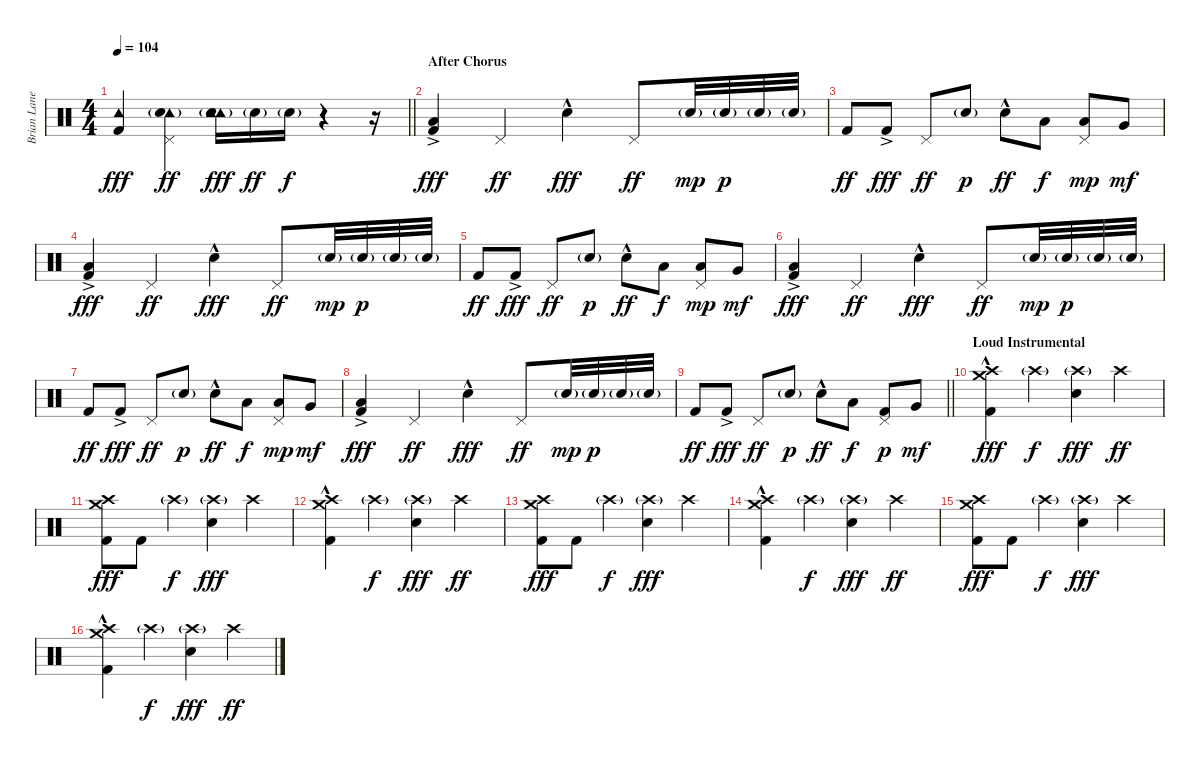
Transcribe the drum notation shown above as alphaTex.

\track ("Brian Lane - Drums" "Brian Lane") {instrument percussion}
\staff {score}
\articulation defaults
\ts (4 4)
\tempo 104
\clef neutral
\barLineRight lightlight
\ks c
("Tambourine (hit)" "Kick (hit) 2").4{dy fff} ("Tambourine (hit)"{g} "Pedal Hi-Hat (hit)" "Snare (hit) 2").4{dy ff} ("Tambourine (hit)"{g} "Tambourine (hit)" "Snare (hit) 2").16{dy fff} "Snare (hit) 2"{g}.16{dy ff} "Snare (hit) 2"{g}.16{dy f} r.4 r.16 |
\section ("" "After Chorus")
("Low Floor Tom (hit)" "Kick (hit) 2"{ac}).4{dy fff} "Pedal Hi-Hat (hit)".4{dy ff} "Snare (hit) 2"{hac}.4{dy fff} "Pedal Hi-Hat (hit)".8{dy ff} "Snare (hit) 2"{g}.32{dy mp} "Snare (hit) 2"{g}.32{dy p} "Snare (hit) 2"{g}.32 "Snare (hit) 2"{g}.32 |
"Kick (hit) 2".8{dy ff} "Kick (hit) 2"{ac}.8{dy fff} "Pedal Hi-Hat (hit)".8{dy ff} "Snare (hit) 2"{g}.8{dy p} "Snare (hit) 2"{hac}.8{dy ff} "Low Tom (hit)".8{dy f} ("Pedal Hi-Hat (hit)" "Low Tom (hit)").8{dy mp} "Very Low Tom (hit)".8{dy mf} |
("Low Floor Tom (hit)" "Kick (hit) 2"{ac}).4{dy fff} "Pedal Hi-Hat (hit)".4{dy ff} "Snare (hit) 2"{hac}.4{dy fff} "Pedal Hi-Hat (hit)".8{dy ff} "Snare (hit) 2"{g}.32{dy mp} "Snare (hit) 2"{g}.32{dy p} "Snare (hit) 2"{g}.32 "Snare (hit) 2"{g}.32 |
"Kick (hit) 2".8{dy ff} "Kick (hit) 2"{ac}.8{dy fff} "Pedal Hi-Hat (hit)".8{dy ff} "Snare (hit) 2"{g}.8{dy p} "Snare (hit) 2"{hac}.8{dy ff} "Low Tom (hit)".8{dy f} ("Pedal Hi-Hat (hit)" "Low Tom (hit)").8{dy mp} "Very Low Tom (hit)".8{dy mf} |
("Low Floor Tom (hit)" "Kick (hit) 2"{ac}).4{dy fff} "Pedal Hi-Hat (hit)".4{dy ff} "Snare (hit) 2"{hac}.4{dy fff} "Pedal Hi-Hat (hit)".8{dy ff} "Snare (hit) 2"{g}.32{dy mp} "Snare (hit) 2"{g}.32{dy p} "Snare (hit) 2"{g}.32 "Snare (hit) 2"{g}.32 |
"Kick (hit) 2".8{dy ff} "Kick (hit) 2"{ac}.8{dy fff} "Pedal Hi-Hat (hit)".8{dy ff} "Snare (hit) 2"{g}.8{dy p} "Snare (hit) 2"{hac}.8{dy ff} "Low Tom (hit)".8{dy f} ("Pedal Hi-Hat (hit)" "Low Tom (hit)").8{dy mp} "Very Low Tom (hit)".8{dy mf} |
("Low Floor Tom (hit)" "Kick (hit) 2"{ac}).4{dy fff} "Pedal Hi-Hat (hit)".4{dy ff} "Snare (hit) 2"{hac}.4{dy fff} "Pedal Hi-Hat (hit)".8{dy ff} "Snare (hit) 2"{g}.32{dy mp} "Snare (hit) 2"{g}.32{dy p} "Snare (hit) 2"{g}.32 "Snare (hit) 2"{g}.32 |
\barLineRight lightlight "Kick (hit) 2".8{dy ff} "Kick (hit) 2"{ac}.8{dy fff} "Pedal Hi-Hat (hit)".8{dy ff} "Snare (hit) 2"{g}.8{dy p} "Snare (hit) 2"{hac}.8{dy ff} "Low Tom (hit)".8{dy f}
("Pedal Hi-Hat (hit)" "Kick (hit) 2").8{dy p} "Very Low Tom (hit)".8{dy mf} |
\section ("" "Loud Instrumental")
("Crash high (hit)" "Crash medium (hit)" "Kick (hit) 2"{hac}).4{dy fff} "Crash high (hit)"{g}.4{dy f} ("Crash high (hit)"{g} "Snare (hit) 2").4{dy fff} "Crash high (hit)".4{dy ff} |
("Crash medium (hit)" "Crash high (hit)" "Kick (hit) 2").8{dy fff} "Kick (hit) 2".8 "Crash high (hit)"{g}.4{dy f} ("Crash high (hit)"{g} "Snare (hit) 2").4{dy fff} "Crash high (hit)".4 |
("Crash high (hit)" "Crash medium (hit)" "Kick (hit) 2"{hac}).4 "Crash high (hit)"{g}.4{dy f} ("Crash high (hit)"{g} "Snare (hit) 2").4{dy fff} "Crash high (hit)".4{dy ff} |
("Crash medium (hit)" "Crash high (hit)" "Kick (hit) 2").8{dy fff} "Kick (hit) 2".8 "Crash high (hit)"{g}.4{dy f} ("Crash high (hit)"{g} "Snare (hit) 2").4{dy fff} "Crash high (hit)".4 |
("Crash high (hit)" "Crash medium (hit)" "Kick (hit) 2"{hac}).4 "Crash high (hit)"{g}.4{dy f} ("Crash high (hit)"{g} "Snare (hit) 2").4{dy fff} "Crash high (hit)".4{dy ff} |
("Crash medium (hit)" "Crash high (hit)" "Kick (hit) 2").8{dy fff} "Kick (hit) 2".8 "Crash high (hit)"{g}.4{dy f} ("Crash high (hit)"{g} "Snare (hit) 2").4{dy fff} "Crash high (hit)".4 |
("Crash high (hit)" "Crash medium (hit)" "Kick (hit) 2"{hac}).4 "Crash high (hit)"{g}.4{dy f} ("Crash high (hit)"{g} "Snare (hit) 2").4{dy fff} "Crash high (hit)".4{dy ff}
